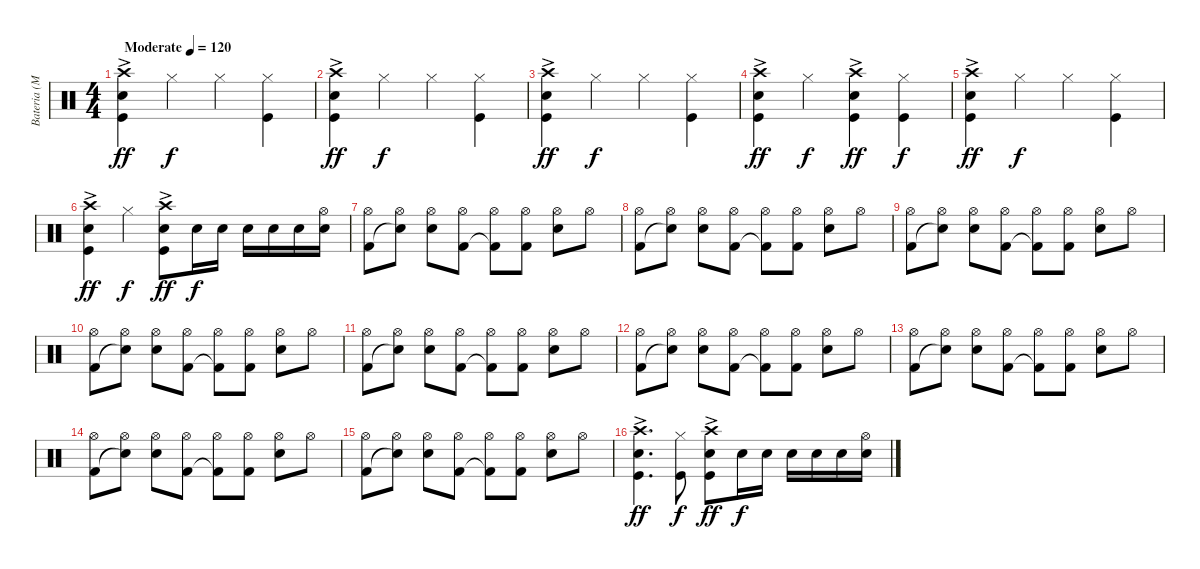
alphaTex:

\track ("Bateria (Mauricio Llona)" "Bateria (M") {instrument percussion}
\staff {score}
\articulation defaults
\ts (4 4)
\tempo (120 "Moderate")
\clef neutral
\ks c
("Crash high (hit)" "Snare (hit) 2"{ac} "Kick (hit)").4{dy ff} "Hi-Hat (closed)".4{dy f} "Hi-Hat (closed)".4 ("Hi-Hat (closed)" "Kick (hit)").4 |
("Crash high (hit)" "Snare (hit) 2"{ac} "Kick (hit)").4{dy ff} "Hi-Hat (closed)".4{dy f} "Hi-Hat (closed)".4 ("Hi-Hat (closed)" "Kick (hit)").4 |
("Crash high (hit)" "Snare (hit) 2"{ac} "Kick (hit)").4{dy ff} "Hi-Hat (closed)".4{dy f} "Hi-Hat (closed)".4 ("Hi-Hat (closed)" "Kick (hit)").4 |
("Crash high (hit)" "Snare (hit) 2"{ac} "Kick (hit)").4{dy ff} "Hi-Hat (closed)".4{dy f} ("Crash high (hit)" "Snare (hit) 2"{ac} "Kick (hit)").4{dy ff} ("Hi-Hat (closed)" "Kick (hit)").4{dy f} |
("Crash high (hit)" "Snare (hit) 2"{ac} "Kick (hit)").4{dy ff} "Hi-Hat (closed)".4{dy f} "Hi-Hat (closed)".4 ("Hi-Hat (closed)" "Kick (hit)").4 |
("Crash high (hit)" "Snare (hit) 2"{ac} "Kick (hit)").4{dy ff} "Hi-Hat (closed)".4{dy f} ("Crash high (hit)" "Snare (hit) 2"{ac} "Kick (hit)").8{dy ff} "Snare (hit) 2".16{dy f} "Snare (hit) 2".16 "Snare (hit) 2".16 "Snare (hit) 2".16 "Snare (hit) 2".16 ("Hi-Hat (open)" "Snare (hit) 2").16 |
("Hi-Hat (open)" "Kick (hit) 2").8 ("Hi-Hat (open)" "Snare (hit)"{t}).8 ("Hi-Hat (open)" "Electric Snare (hit)").8 ("Hi-Hat (open)" "Kick (hit) 2").8 ("Hi-Hat (open)" "Kick (hit) 2"{t}).8 ("Hi-Hat (open)" "Kick (hit) 2").8 ("Hi-Hat (open)" "Electric Snare (hit)").8 "Hi-Hat (open)".8 |
("Hi-Hat (open)" "Kick (hit) 2").8 ("Hi-Hat (open)" "Snare (hit)"{t}).8 ("Hi-Hat (open)" "Electric Snare (hit)").8 ("Hi-Hat (open)" "Kick (hit) 2").8 ("Hi-Hat (open)" "Kick (hit) 2"{t}).8 ("Hi-Hat (open)" "Kick (hit) 2").8 ("Hi-Hat (open)" "Electric Snare (hit)").8 "Hi-Hat (open)".8 |
("Hi-Hat (open)" "Kick (hit) 2").8 ("Hi-Hat (open)" "Snare (hit)"{t}).8 ("Hi-Hat (open)" "Electric Snare (hit)").8 ("Hi-Hat (open)" "Kick (hit) 2").8 ("Hi-Hat (open)" "Kick (hit) 2"{t}).8 ("Hi-Hat (open)" "Kick (hit) 2").8 ("Hi-Hat (open)" "Electric Snare (hit)").8 "Hi-Hat (open)".8 |
("Hi-Hat (open)" "Kick (hit) 2").8 ("Hi-Hat (open)" "Snare (hit)"{t}).8 ("Hi-Hat (open)" "Electric Snare (hit)").8 ("Hi-Hat (open)" "Kick (hit) 2").8 ("Hi-Hat (open)" "Kick (hit) 2"{t}).8 ("Hi-Hat (open)" "Kick (hit) 2").8 ("Hi-Hat (open)" "Electric Snare (hit)").8 "Hi-Hat (open)".8 |
("Hi-Hat (open)" "Kick (hit) 2").8 ("Hi-Hat (open)" "Snare (hit)"{t}).8 ("Hi-Hat (open)" "Electric Snare (hit)").8 ("Hi-Hat (open)" "Kick (hit) 2").8 ("Hi-Hat (open)" "Kick (hit) 2"{t}).8 ("Hi-Hat (open)" "Kick (hit) 2").8 ("Hi-Hat (open)" "Electric Snare (hit)").8 "Hi-Hat (open)".8 |
("Hi-Hat (open)" "Kick (hit) 2").8 ("Hi-Hat (open)" "Snare (hit)"{t}).8 ("Hi-Hat (open)" "Electric Snare (hit)").8 ("Hi-Hat (open)" "Kick (hit) 2").8 ("Hi-Hat (open)" "Kick (hit) 2"{t}).8 ("Hi-Hat (open)" "Kick (hit) 2").8 ("Hi-Hat (open)" "Electric Snare (hit)").8 "Hi-Hat (open)".8 |
("Hi-Hat (open)" "Kick (hit) 2").8 ("Hi-Hat (open)" "Snare (hit)"{t}).8 ("Hi-Hat (open)" "Electric Snare (hit)").8 ("Hi-Hat (open)" "Kick (hit) 2").8 ("Hi-Hat (open)" "Kick (hit) 2"{t}).8 ("Hi-Hat (open)" "Kick (hit) 2").8 ("Hi-Hat (open)" "Electric Snare (hit)").8 "Hi-Hat (open)".8 |
("Hi-Hat (open)" "Kick (hit) 2").8 ("Hi-Hat (open)" "Snare (hit)"{t}).8 ("Hi-Hat (open)" "Electric Snare (hit)").8 ("Hi-Hat (open)" "Kick (hit) 2").8 ("Hi-Hat (open)" "Kick (hit) 2"{t}).8 ("Hi-Hat (open)" "Kick (hit) 2").8 ("Hi-Hat (open)" "Electric Snare (hit)").8 "Hi-Hat (open)".8 |
("Hi-Hat (open)" "Kick (hit) 2").8 ("Hi-Hat (open)" "Snare (hit)"{t}).8 ("Hi-Hat (open)" "Electric Snare (hit)").8 ("Hi-Hat (open)" "Kick (hit) 2").8 ("Hi-Hat (open)" "Kick (hit) 2"{t}).8 ("Hi-Hat (open)" "Kick (hit) 2").8 ("Hi-Hat (open)" "Electric Snare (hit)").8 "Hi-Hat (open)".8 |
("Crash high (hit)" "Snare (hit) 2"{ac} "Kick (hit)").4{d dy ff} ("Hi-Hat (closed)" "Kick (hit)").8{dy f} ("Crash high (hit)" "Snare (hit) 2"{ac} "Kick (hit)").8{dy ff} "Snare (hit) 2".16{dy f} "Snare (hit) 2".16 "Snare (hit) 2".16 "Snare (hit) 2".16 "Snare (hit) 2".16 ("Hi-Hat (open)" "Snare (hit) 2").16
